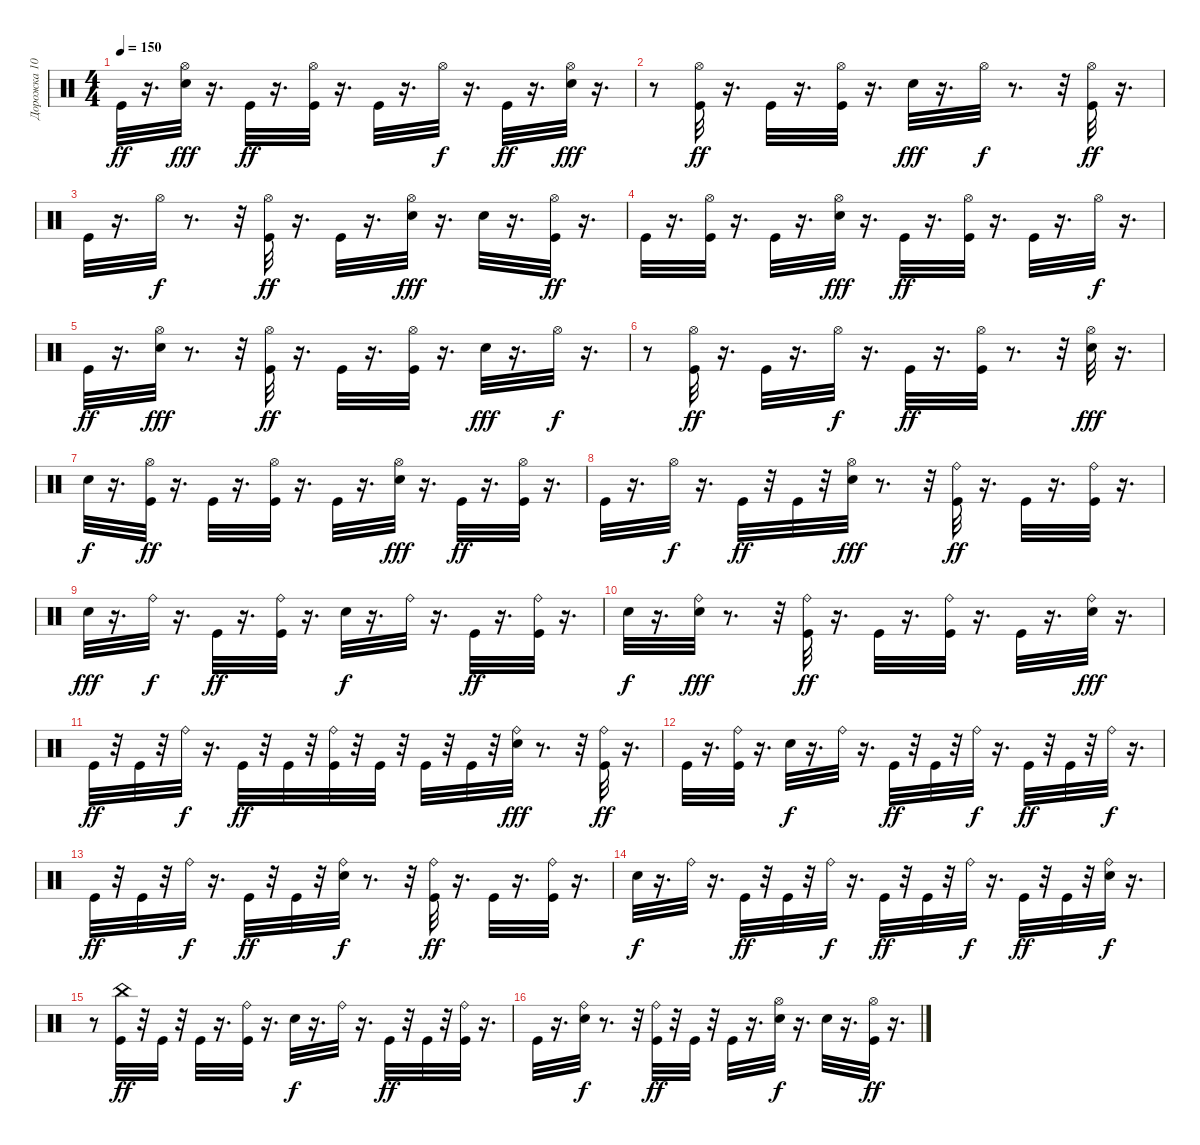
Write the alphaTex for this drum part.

\track ("Дорожка 10" "Дорожка 10") {instrument percussion}
\staff {score}
\articulation defaults
\ts (4 4)
\tempo 150
\clef neutral
\ks c "Kick (hit)".32{dy ff}
r.16{d} ("Electric Snare (hit)" "Hi-Hat (open)").32{dy fff} r.16{d} "Kick (hit)".32{dy ff} r.16{d} ("Hi-Hat (open)" "Kick (hit)").32 r.16{d} "Kick (hit)".32 r.16{d} "Hi-Hat (open)".32{dy f} r.16{d} "Kick (hit)".32{dy ff} r.16{d} ("Electric Snare (hit)" "Hi-Hat (open)").32{dy fff} r.16{d} |
r.8 ("Hi-Hat (open)" "Kick (hit)").32{dy ff} r.16{d} "Kick (hit)".32 r.16{d} ("Hi-Hat (open)" "Kick (hit)").32 r.16{d} "Electric Snare (hit)".32{dy fff} r.16{d} "Hi-Hat (open)".32{dy f} r.8{d} r.32 ("Kick (hit)" "Hi-Hat (open)").32{dy ff} r.16{d} |
"Kick (hit)".32 r.16{d} "Hi-Hat (open)".32{dy f} r.8{d} r.32 ("Kick (hit)" "Hi-Hat (open)").32{dy ff} r.16{d} "Kick (hit)".32 r.16{d} ("Hi-Hat (open)" "Electric Snare (hit)").32{dy fff} r.16{d} "Electric Snare (hit)".32 r.16{d} ("Kick (hit)" "Hi-Hat (open)").32{dy ff} r.16{d} |
"Kick (hit)".32 r.16{d} ("Hi-Hat (open)" "Kick (hit)").32 r.16{d} "Kick (hit)".32 r.16{d} ("Electric Snare (hit)" "Hi-Hat (open)").32{dy fff} r.16{d} "Kick (hit)".32{dy ff} r.16{d} ("Hi-Hat (open)" "Kick (hit)").32 r.16{d} "Kick (hit)".32 r.16{d} "Hi-Hat (open)".32{dy f} r.16{d} |
"Kick (hit)".32{dy ff} r.16{d} ("Electric Snare (hit)" "Hi-Hat (open)").32{dy fff} r.8{d} r.32 ("Hi-Hat (open)" "Kick (hit)").32{dy ff} r.16{d} "Kick (hit)".32 r.16{d} ("Kick (hit)" "Hi-Hat (open)").32 r.16{d} "Electric Snare (hit)".32{dy fff} r.16{d} "Hi-Hat (open)".32{dy f} r.16{d} |
r.8 ("Kick (hit)" "Hi-Hat (open)").32{dy ff} r.16{d} "Kick (hit)".32 r.16{d} "Hi-Hat (open)".32{dy f} r.16{d} "Kick (hit)".32{dy ff} r.16{d} ("Kick (hit)" "Hi-Hat (open)").32 r.8{d} r.32 ("Electric Snare (hit)" "Hi-Hat (open)").32{dy fff} r.16{d} |
"Electric Snare (hit)".32{dy f} r.16{d} ("Kick (hit)" "Hi-Hat (open)").32{dy ff} r.16{d} "Kick (hit)".32 r.16{d} ("Hi-Hat (open)" "Kick (hit)").32 r.16{d} "Kick (hit)".32 r.16{d} ("Electric Snare (hit)" "Hi-Hat (open)").32{dy fff} r.16{d} "Kick (hit)".32{dy ff} r.16{d} ("Hi-Hat (open)" "Kick (hit)").32 r.16{d} |
"Kick (hit)".32 r.16{d} "Hi-Hat (open)".32{dy f} r.16{d} "Kick (hit)".32{dy ff} r.32 "Kick (hit)".32 r.32 ("Electric Snare (hit)" "Hi-Hat (open)").32{dy fff} r.8{d} r.32 ("Ride (bell)" "Kick (hit)").32{dy ff} r.16{d} "Kick (hit)".32 r.16{d} ("Ride (bell)" "Kick (hit)").32 r.16{d} |
"Electric Snare (hit)".32{dy fff} r.16{d} "Ride (bell)".32{dy f} r.16{d} "Kick (hit)".32{dy ff} r.16{d} ("Ride (bell)" "Kick (hit)").32 r.16{d} "Electric Snare (hit)".32{dy f} r.16{d} "Ride (bell)".32 r.16{d} "Kick (hit)".32{dy ff} r.16{d} ("Ride (bell)" "Kick (hit)").32 r.16{d} |
"Electric Snare (hit)".32{dy f} r.16{d} ("Electric Snare (hit)" "Ride (bell)").32{dy fff} r.8{d} r.32 ("Ride (bell)" "Kick (hit)").32{dy ff} r.16{d} "Kick (hit)".32 r.16{d} ("Kick (hit)" "Ride (bell)").32 r.16{d} "Kick (hit)".32 r.16{d} ("Ride (bell)" "Electric Snare (hit)").32{dy fff} r.16{d} |
"Kick (hit)".32{dy ff} r.32 "Kick (hit)".32 r.32 "Ride (bell)".32{dy f} r.16{d} "Kick (hit)".32{dy ff} r.32 "Kick (hit)".32 r.32 ("Ride (bell)" "Kick (hit)").32 r.32 "Kick (hit)".32 r.32 "Kick (hit)".32 r.32 "Kick (hit)".32 r.32 ("Electric Snare (hit)" "Ride (bell)").32{dy fff} r.8{d} r.32 ("Ride (bell)" "Kick (hit)").32{dy ff} r.16{d} |
"Kick (hit)".32 r.16{d} ("Ride (bell)" "Kick (hit)").32 r.16{d} "Electric Snare (hit)".32{dy f} r.16{d} "Ride (bell)".32 r.16{d} "Kick (hit)".32{dy ff} r.32 "Kick (hit)".32 r.32 "Ride (bell)".32{dy f} r.16{d} "Kick (hit)".32{dy ff} r.32 "Kick (hit)".32 r.32 "Ride (bell)".32{dy f} r.16{d} |
"Kick (hit)".32{dy ff} r.32 "Kick (hit)".32 r.32 "Ride (bell)".32{dy f} r.16{d} "Kick (hit)".32{dy ff} r.32 "Kick (hit)".32 r.32 ("Electric Snare (hit)" "Ride (bell)").32{dy f} r.8{d} r.32 ("Kick (hit)" "Ride (bell)").32{dy ff} r.16{d} "Kick (hit)".32 r.16{d} ("Kick (hit)" "Ride (bell)").32 r.16{d} |
"Electric Snare (hit)".32{dy f} r.16{d} "Ride (bell)".32 r.16{d} "Kick (hit)".32{dy ff} r.32 "Kick (hit)".32 r.32 "Ride (bell)".32{dy f} r.16{d} "Kick (hit)".32{dy ff} r.32 "Kick (hit)".32 r.32 "Ride (bell)".32{dy f} r.16{d} "Kick (hit)".32{dy ff} r.32 "Kick (hit)".32 r.32 ("Ride (bell)" "Electric Snare (hit)").32{dy f} r.16{d} |
r.8 ("Kick (hit)" "China (hit)").32{dy ff} r.32 "Kick (hit)".32 r.32 "Kick (hit)".32 r.16{d} ("Ride (bell)" "Kick (hit)").32 r.16{d} "Electric Snare (hit)".32{dy f} r.16{d} "Ride (bell)".32 r.16{d} "Kick (hit)".32{dy ff} r.32 "Kick (hit)".32 r.32 ("Kick (hit)" "Ride (bell)").32 r.16{d} |
"Kick (hit)".32 r.16{d} ("Electric Snare (hit)" "Ride (bell)").32{dy f} r.8{d} r.32 ("Kick (hit)" "Ride (bell)").32{dy ff} r.32 "Kick (hit)".32 r.32 "Kick (hit)".32 r.16{d} ("Hi-Hat (open)" "Electric Snare (hit)").32{dy f} r.16{d} "Electric Snare (hit)".32 r.16{d} ("Kick (hit)" "Hi-Hat (open)").32{dy ff} r.16{d}
